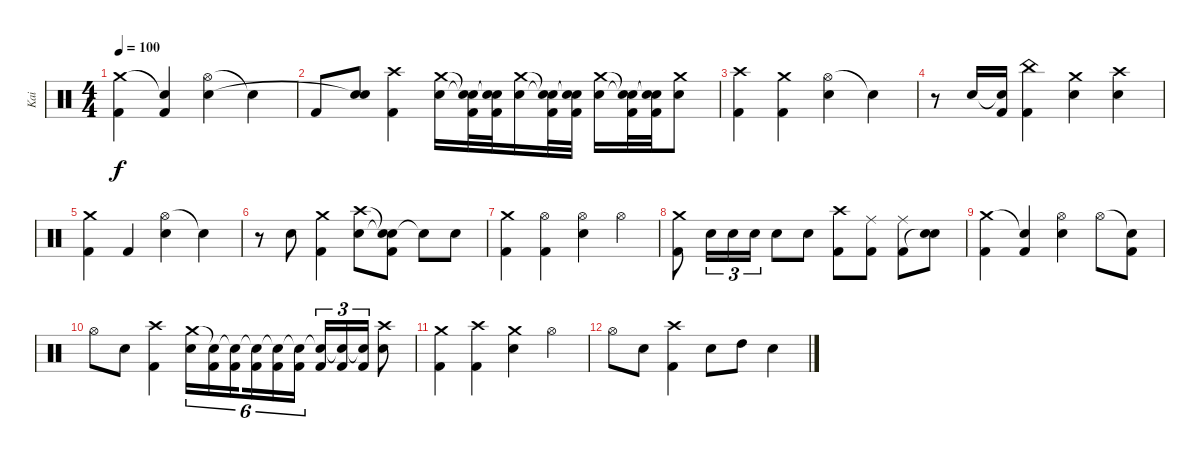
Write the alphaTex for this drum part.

\track ("Kai" "Kai") {instrument percussion}
\staff {score}
\articulation defaults
\ts (4 4)
\tempo 100
\clef neutral
\ks c
("Crash medium (hit)" "Kick (hit) 2").4{dy f} ("Snare (hit)"{t} "Kick (hit) 2").4 ("Hi-Hat (open)" "Snare (hit) 2").4 "Snare (hit)"{t}.4 |
"Kick (hit) 2".8 ("Snare (hit) 2" "Snare (hit)"{t}).8 ("Crash high (hit)" "Kick (hit) 2").4 ("Crash medium (hit)" "Snare (hit) 2").16 ("Snare (hit)"{t} "Snare (hit)"{t} "Kick (hit) 2").32 ("Snare (hit)"{t} "Snare (hit)"{t} "Kick (hit) 2").32 ("Crash medium (hit)" "Snare (hit) 2").16 ("Snare (hit)"{t} "Snare (hit)"{t} "Kick (hit) 2").32 ("Snare (hit)"{t} "Snare (hit)"{t} "Kick (hit) 2").32 ("Crash medium (hit)" "Snare (hit) 2").16 ("Snare (hit)"{t} "Snare (hit)"{t} "Kick (hit) 2").32 ("Snare (hit)"{t} "Snare (hit)"{t} "Kick (hit) 2").32 ("Crash medium (hit)" "Snare (hit) 2").8 |
("Crash high (hit)" "Kick (hit) 2").4 ("Crash medium (hit)" "Kick (hit) 2").4 ("Hi-Hat (open)" "Snare (hit) 2").4 "Snare (hit)"{t}.4 |
r.8 "Snare (hit) 2".16 ("Snare (hit)"{t} "Kick (hit) 2").16 ("China (hit)" "Kick (hit) 2").4 ("Crash medium (hit)" "Snare (hit) 2").4 ("Crash high (hit)" "Snare (hit) 2").4 |
("Crash medium (hit)" "Kick (hit) 2").4 "Kick (hit) 2".4 ("Hi-Hat (open)" "Snare (hit) 2").4 "Snare (hit)"{t}.4 |
r.8 "Snare (hit) 2".8 ("Crash medium (hit)" "Kick (hit) 2").4 ("Crash high (hit)" "Snare (hit) 2").8 ("Snare (hit)"{t} "Snare (hit)"{t} "Kick (hit) 2").8 "Snare (hit)"{t}.8 "Snare (hit) 2".8 |
("Crash medium (hit)" "Kick (hit) 2").4 ("Hi-Hat (open)" "Kick (hit) 2").4 ("Hi-Hat (open)" "Snare (hit) 2").4 "Hi-Hat (open)".4 |
("Crash medium (hit)" "Kick (hit) 2").8 "Snare (hit) 2".16{tu (3 2)} "Snare (hit) 2".16{tu (3 2)} "Snare (hit) 2".16{tu (3 2)} "Snare (hit) 2".8 "Snare (hit) 2".8 ("Crash high (hit)" "Kick (hit) 2").8 ("Ride (middle)" "Kick (hit) 2").8 ("Ride (middle)" "Kick (hit) 2").8 ("Snare (hit) 2" "Snare (hit)"{t}).8 |
("Crash medium (hit)" "Kick (hit) 2").4{volume 0} ("Snare (hit)"{t} "Kick (hit) 2").4 ("Hi-Hat (open)" "Snare (hit) 2").4 "Hi-Hat (open)".8 ("Snare (hit)"{t} "Kick (hit) 2").8 |
"Hi-Hat (open)".8 "Snare (hit) 2".8 ("Crash high (hit)" "Kick (hit) 2").4 ("Crash medium (hit)" "Snare (hit) 2").16{tu (6 4)} ("Snare (hit)"{t} "Kick (hit) 2").16{tu (6 4)} ("Snare (hit)"{t} "Kick (hit) 2").16{tu (6 4) beam splitsecondary} ("Snare (hit)"{t} "Kick (hit) 2").16{tu (6 4)} ("Snare (hit)"{t} "Kick (hit) 2").16{tu (6 4)} ("Snare (hit)"{t} "Kick (hit) 2").16{tu (6 4)} ("Snare (hit)"{t} "Kick (hit) 2").16{tu (3 2)} ("Snare (hit)"{t} "Kick (hit) 2").16{tu (3 2)} ("Snare (hit)"{t} "Kick (hit) 2").16{tu (3 2)} ("Crash high (hit)" "Snare (hit) 2").8 |
("Crash medium (hit)" "Kick (hit) 2").4 ("Crash high (hit)" "Kick (hit) 2").4 ("Crash medium (hit)" "Snare (hit) 2").4 "Hi-Hat (open)".4 |
"Hi-Hat (open)".8 "Snare (hit) 2".8 ("Crash high (hit)" "Kick (hit) 2").4 "Snare (hit) 2".8 "High Tom (hit)".8 "Snare (hit) 2".4
